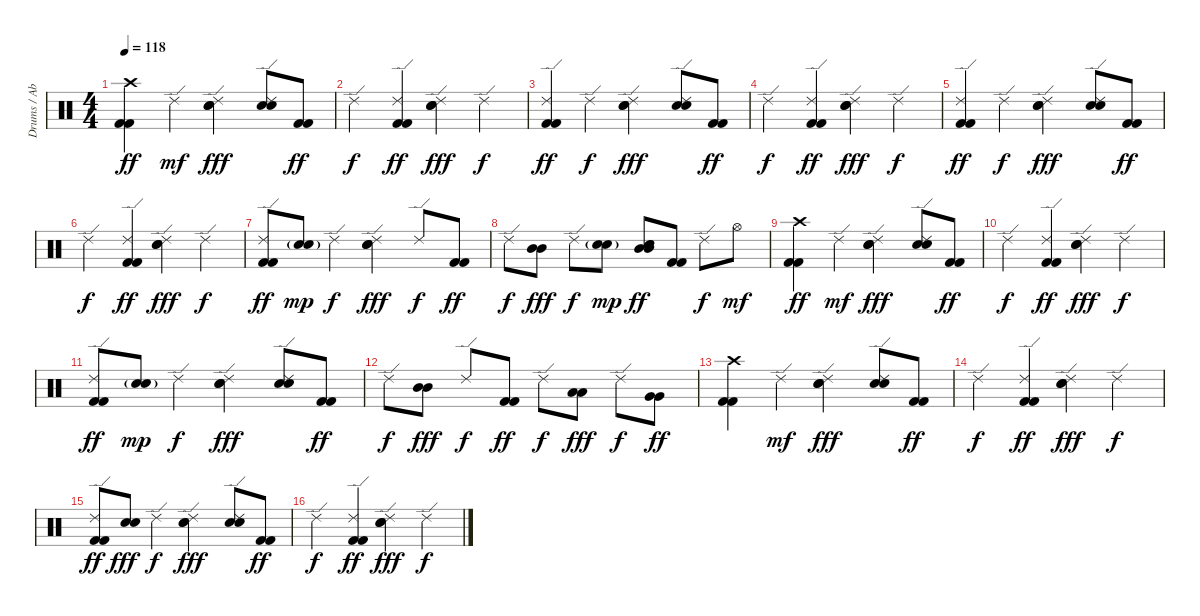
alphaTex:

\track ("Drums / Abe Cunningham" "Drums / Ab") {instrument percussion}
\staff {score}
\articulation defaults
\ts (4 4)
\tempo 118
\clef neutral
\ks c
("Crash high (hit)" "Kick (hit) 2" "Kick (hit) 2").4{dy ff} "Ride (edge) 2".4{dy mf} ("Ride (edge) 2" "Electric Snare (hit)" "Electric Snare (hit)").4{dy fff} ("Ride (edge) 2" "Electric Snare (hit)" "Electric Snare (hit)").8 ("Kick (hit) 2" "Kick (hit) 2").8{dy ff} |
"Ride (edge) 2".4{dy f} ("Ride (edge) 2" "Kick (hit) 2" "Kick (hit) 2").4{dy ff} ("Ride (edge) 2" "Electric Snare (hit)" "Electric Snare (hit)").4{dy fff} "Ride (edge) 2".4{dy f} |
("Ride (edge) 2" "Kick (hit) 2" "Kick (hit) 2").4{dy ff} "Ride (edge) 2".4{dy f} ("Ride (edge) 2" "Electric Snare (hit)" "Electric Snare (hit)").4{dy fff} ("Ride (edge) 2" "Electric Snare (hit)" "Electric Snare (hit)").8 ("Kick (hit) 2" "Kick (hit) 2").8{dy ff} |
"Ride (edge) 2".4{dy f} ("Ride (edge) 2" "Kick (hit) 2" "Kick (hit) 2").4{dy ff} ("Ride (edge) 2" "Electric Snare (hit)" "Electric Snare (hit)").4{dy fff} "Ride (edge) 2".4{dy f} |
("Ride (edge) 2" "Kick (hit) 2" "Kick (hit) 2").4{dy ff} "Ride (edge) 2".4{dy f} ("Ride (edge) 2" "Electric Snare (hit)" "Electric Snare (hit)").4{dy fff} ("Ride (edge) 2" "Electric Snare (hit)" "Electric Snare (hit)").8 ("Kick (hit) 2" "Kick (hit) 2").8{dy ff} |
"Ride (edge) 2".4{dy f} ("Ride (edge) 2" "Kick (hit) 2" "Kick (hit) 2").4{dy ff} ("Ride (edge) 2" "Electric Snare (hit)" "Electric Snare (hit)").4{dy fff} "Ride (edge) 2".4{dy f} |
("Ride (edge) 2" "Kick (hit) 2" "Kick (hit) 2").8{dy ff} ("Electric Snare (hit)"{g} "Electric Snare (hit)"{g}).8{dy mp} "Ride (edge) 2".4{dy f} ("Ride (edge) 2" "Electric Snare (hit)" "Electric Snare (hit)").4{dy fff} "Ride (edge) 2".8{dy f} ("Kick (hit) 2" "Kick (hit) 2").8{dy ff} |
"Ride (edge) 2".8{dy f} ("Mid Tom (hit)" "Mid Tom (hit)").8{dy fff} "Ride (edge) 2".8{dy f} ("Electric Snare (hit)"{g} "Electric Snare (hit)"{g}).8{dy mp} ("Electric Snare (hit)" "Electric Snare (hit)" "Mid Tom (hit)" "Mid Tom (hit)").8{dy ff} ("Kick (hit) 2" "Kick (hit) 2").8 "Ride (edge) 2".8{dy f} "Hi-Hat (open)".8{dy mf} |
("Crash high (hit)" "Kick (hit) 2" "Kick (hit) 2").4{dy ff} "Ride (edge) 2".4{dy mf} ("Ride (edge) 2" "Electric Snare (hit)" "Electric Snare (hit)").4{dy fff} ("Ride (edge) 2" "Electric Snare (hit)" "Electric Snare (hit)").8 ("Kick (hit) 2" "Kick (hit) 2").8{dy ff} |
"Ride (edge) 2".4{dy f} ("Ride (edge) 2" "Kick (hit) 2" "Kick (hit) 2").4{dy ff} ("Ride (edge) 2" "Electric Snare (hit)" "Electric Snare (hit)").4{dy fff} "Ride (edge) 2".4{dy f} |
("Ride (edge) 2" "Kick (hit) 2" "Kick (hit) 2").8{dy ff} ("Electric Snare (hit)"{g} "Electric Snare (hit)"{g}).8{dy mp} "Ride (edge) 2".4{dy f} ("Ride (edge) 2" "Electric Snare (hit)" "Electric Snare (hit)").4{dy fff} ("Ride (edge) 2" "Electric Snare (hit)" "Electric Snare (hit)").8 ("Kick (hit) 2" "Kick (hit) 2").8{dy ff} |
"Ride (edge) 2".8{dy f} ("Mid Tom (hit)" "Mid Tom (hit)").8{dy fff} "Ride (edge) 2".8{dy f} ("Kick (hit) 2" "Kick (hit) 2").8{dy ff} "Ride (edge) 2".8{dy f} ("Low Tom (hit)" "Low Tom (hit)").8{dy fff} "Ride (edge) 2".8{dy f} ("Very Low Tom (hit)" "Very Low Tom (hit)").8{dy ff} |
("Crash high (hit)" "Kick (hit) 2" "Kick (hit) 2").4 "Ride (edge) 2".4{dy mf} ("Ride (edge) 2" "Electric Snare (hit)" "Electric Snare (hit)").4{dy fff} ("Ride (edge) 2" "Electric Snare (hit)" "Electric Snare (hit)").8 ("Kick (hit) 2" "Kick (hit) 2").8{dy ff} |
"Ride (edge) 2".4{dy f} ("Ride (edge) 2" "Kick (hit) 2" "Kick (hit) 2").4{dy ff} ("Ride (edge) 2" "Electric Snare (hit)" "Electric Snare (hit)").4{dy fff} "Ride (edge) 2".4{dy f} |
("Ride (edge) 2" "Kick (hit) 2" "Kick (hit) 2").8{dy ff} ("Electric Snare (hit)" "Electric Snare (hit)").8{dy fff} "Ride (edge) 2".4{dy f} ("Ride (edge) 2" "Electric Snare (hit)" "Electric Snare (hit)").4{dy fff} ("Ride (edge) 2" "Electric Snare (hit)" "Electric Snare (hit)").8 ("Kick (hit) 2" "Kick (hit) 2").8{dy ff} |
"Ride (edge) 2".4{dy f} ("Ride (edge) 2" "Kick (hit) 2" "Kick (hit) 2").4{dy ff} ("Ride (edge) 2" "Electric Snare (hit)" "Electric Snare (hit)").4{dy fff} "Ride (edge) 2".4{dy f}
